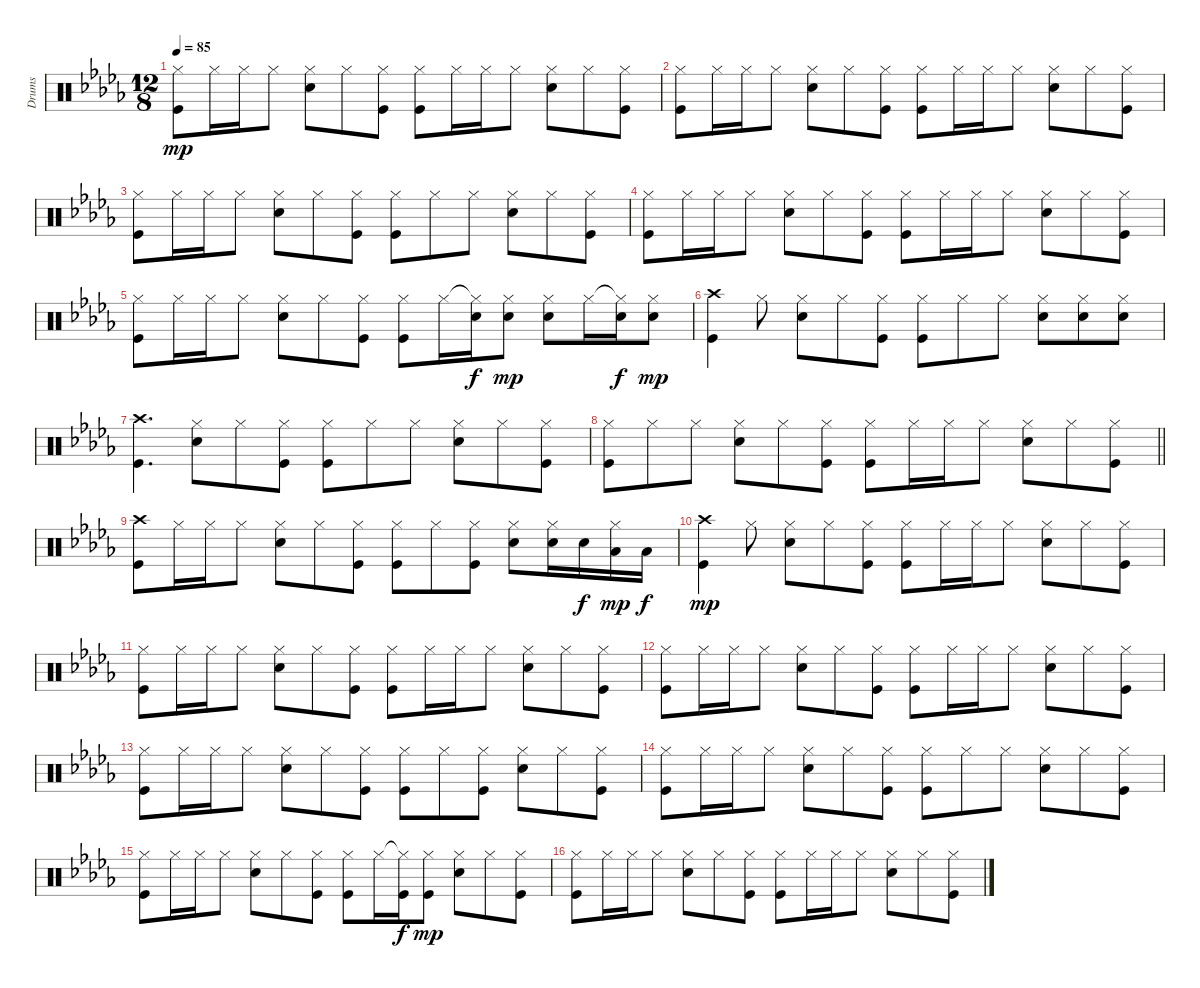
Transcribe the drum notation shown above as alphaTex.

\track ("Drums" "Drums") {instrument percussion}
\staff {score}
\articulation defaults
\ts (12 8)
\tempo 85
\clef neutral
\ks bbminor
("Hi-Hat (closed)" "Kick (hit)").8{dy mp} "Hi-Hat (closed)".16 "Hi-Hat (closed)".16 "Hi-Hat (closed)".8 ("Hi-Hat (closed)" "Snare (hit) 2").8 "Hi-Hat (closed)".8 ("Hi-Hat (closed)" "Kick (hit)").8 ("Hi-Hat (closed)" "Kick (hit)").8 "Hi-Hat (closed)".16 "Hi-Hat (closed)".16 "Hi-Hat (closed)".8 ("Hi-Hat (closed)" "Snare (hit) 2").8 "Hi-Hat (closed)".8 ("Hi-Hat (closed)" "Kick (hit)").8 |
("Hi-Hat (closed)" "Kick (hit)").8 "Hi-Hat (closed)".16 "Hi-Hat (closed)".16 "Hi-Hat (closed)".8 ("Hi-Hat (closed)" "Snare (hit) 2").8 "Hi-Hat (closed)".8 ("Hi-Hat (closed)" "Kick (hit)").8 ("Hi-Hat (closed)" "Kick (hit)").8 "Hi-Hat (closed)".16 "Hi-Hat (closed)".16 "Hi-Hat (closed)".8 ("Hi-Hat (closed)" "Snare (hit) 2").8 "Hi-Hat (closed)".8 ("Hi-Hat (closed)" "Kick (hit)").8 |
("Hi-Hat (closed)" "Kick (hit)").8 "Hi-Hat (closed)".16 "Hi-Hat (closed)".16 "Hi-Hat (closed)".8 ("Hi-Hat (closed)" "Snare (hit) 2").8 "Hi-Hat (closed)".8 ("Hi-Hat (closed)" "Kick (hit)").8 ("Hi-Hat (closed)" "Kick (hit)").8 "Hi-Hat (closed)".8 "Hi-Hat (closed)".8 ("Hi-Hat (closed)" "Snare (hit) 2").8 "Hi-Hat (closed)".8 ("Hi-Hat (closed)" "Kick (hit)").8 |
("Hi-Hat (closed)" "Kick (hit)").8 "Hi-Hat (closed)".16 "Hi-Hat (closed)".16 "Hi-Hat (closed)".8 ("Hi-Hat (closed)" "Snare (hit) 2").8 "Hi-Hat (closed)".8 ("Hi-Hat (closed)" "Kick (hit)").8 ("Hi-Hat (closed)" "Kick (hit)").8 "Hi-Hat (closed)".16 "Hi-Hat (closed)".16 "Hi-Hat (closed)".8 ("Hi-Hat (closed)" "Snare (hit) 2").8 "Hi-Hat (closed)".8 ("Hi-Hat (closed)" "Kick (hit)").8 |
("Hi-Hat (closed)" "Kick (hit)").8 "Hi-Hat (closed)".16 "Hi-Hat (closed)".16 "Hi-Hat (closed)".8 ("Hi-Hat (closed)" "Snare (hit) 2").8 "Hi-Hat (closed)".8 ("Hi-Hat (closed)" "Kick (hit)").8 ("Hi-Hat (closed)" "Kick (hit)").8 "Hi-Hat (closed)".16 ("Hi-Hat (closed)"{t} "Snare (hit) 2").16{dy f} ("Hi-Hat (closed)" "Snare (hit) 2").8{dy mp} ("Hi-Hat (closed)" "Snare (hit) 2").8 "Hi-Hat (closed)".16 ("Hi-Hat (closed)"{t} "Snare (hit) 2").16{dy f} ("Hi-Hat (closed)" "Snare (hit) 2").8{dy mp} |
("Crash high (hit)" "Kick (hit)").4 "Hi-Hat (closed)".8 ("Hi-Hat (closed)" "Snare (hit) 2").8 "Hi-Hat (closed)".8 ("Hi-Hat (closed)" "Kick (hit)").8 ("Hi-Hat (closed)" "Kick (hit)").8 "Hi-Hat (closed)".8 "Hi-Hat (closed)".8 ("Hi-Hat (closed)" "Snare (hit) 2").8 ("Hi-Hat (closed)" "Snare (hit) 2").8 ("Hi-Hat (closed)" "Snare (hit) 2").8 |
("Crash high (hit)" "Kick (hit)").4{d} ("Hi-Hat (closed)" "Snare (hit) 2").8 "Hi-Hat (closed)".8 ("Hi-Hat (closed)" "Kick (hit)").8 ("Hi-Hat (closed)" "Kick (hit)").8 "Hi-Hat (closed)".8 "Hi-Hat (closed)".8 ("Hi-Hat (closed)" "Snare (hit) 2").8 "Hi-Hat (closed)".8 ("Hi-Hat (closed)" "Kick (hit)").8 |
\barLineRight lightlight
("Hi-Hat (closed)" "Kick (hit)").8 "Hi-Hat (closed)".8 "Hi-Hat (closed)".8 ("Hi-Hat (closed)" "Snare (hit) 2").8 "Hi-Hat (closed)".8 ("Hi-Hat (closed)" "Kick (hit)").8 ("Hi-Hat (closed)" "Kick (hit)").8 "Hi-Hat (closed)".16 "Hi-Hat (closed)".16 "Hi-Hat (closed)".8 ("Hi-Hat (closed)" "Snare (hit) 2").8 "Hi-Hat (closed)".8 ("Hi-Hat (closed)" "Kick (hit)").8 |
("Crash high (hit)" "Kick (hit)").8 "Hi-Hat (closed)".16 "Hi-Hat (closed)".16 "Hi-Hat (closed)".8 ("Hi-Hat (closed)" "Snare (hit) 2").8 "Hi-Hat (closed)".8 ("Hi-Hat (closed)" "Kick (hit)").8 ("Hi-Hat (closed)" "Kick (hit)").8 "Hi-Hat (closed)".8 ("Hi-Hat (closed)" "Kick (hit)").8 ("Hi-Hat (closed)" "Snare (hit) 2").8 ("Hi-Hat (closed)" "Snare (hit) 2").16 "Snare (hit) 2".16{dy f} ("Hi-Hat (closed)" "Low Tom (hit)").16{dy mp} "Low Tom (hit)".16{dy f} |
("Crash high (hit)" "Kick (hit)").4{dy mp} "Hi-Hat (closed)".8 ("Hi-Hat (closed)" "Snare (hit) 2").8 "Hi-Hat (closed)".8 ("Hi-Hat (closed)" "Kick (hit)").8 ("Hi-Hat (closed)" "Kick (hit)").8 "Hi-Hat (closed)".16 "Hi-Hat (closed)".16 "Hi-Hat (closed)".8 ("Hi-Hat (closed)" "Snare (hit) 2").8 "Hi-Hat (closed)".8 ("Hi-Hat (closed)" "Kick (hit)").8 |
("Hi-Hat (closed)" "Kick (hit)").8 "Hi-Hat (closed)".16 "Hi-Hat (closed)".16 "Hi-Hat (closed)".8 ("Hi-Hat (closed)" "Snare (hit) 2").8 "Hi-Hat (closed)".8 ("Hi-Hat (closed)" "Kick (hit)").8 ("Hi-Hat (closed)" "Kick (hit)").8 "Hi-Hat (closed)".16 "Hi-Hat (closed)".16 "Hi-Hat (closed)".8 ("Hi-Hat (closed)" "Snare (hit) 2").8 "Hi-Hat (closed)".8 ("Hi-Hat (closed)" "Kick (hit)").8 |
("Hi-Hat (closed)" "Kick (hit)").8 "Hi-Hat (closed)".16 "Hi-Hat (closed)".16 "Hi-Hat (closed)".8 ("Hi-Hat (closed)" "Snare (hit) 2").8 "Hi-Hat (closed)".8 ("Hi-Hat (closed)" "Kick (hit)").8 ("Hi-Hat (closed)" "Kick (hit)").8 "Hi-Hat (closed)".16 "Hi-Hat (closed)".16 "Hi-Hat (closed)".8 ("Hi-Hat (closed)" "Snare (hit) 2").8 "Hi-Hat (closed)".8 ("Hi-Hat (closed)" "Kick (hit)").8 |
("Hi-Hat (closed)" "Kick (hit)").8 "Hi-Hat (closed)".16 "Hi-Hat (closed)".16 "Hi-Hat (closed)".8 ("Hi-Hat (closed)" "Snare (hit) 2").8 "Hi-Hat (closed)".8 ("Hi-Hat (closed)" "Kick (hit)").8 ("Hi-Hat (closed)" "Kick (hit)").8 "Hi-Hat (closed)".8 ("Hi-Hat (closed)" "Kick (hit)").8 ("Hi-Hat (closed)" "Snare (hit) 2").8 "Hi-Hat (closed)".8 ("Hi-Hat (closed)" "Kick (hit)").8 |
("Hi-Hat (closed)" "Kick (hit)").8 "Hi-Hat (closed)".16 "Hi-Hat (closed)".16 "Hi-Hat (closed)".8 ("Hi-Hat (closed)" "Snare (hit) 2").8 "Hi-Hat (closed)".8 ("Hi-Hat (closed)" "Kick (hit)").8 ("Hi-Hat (closed)" "Kick (hit)").8 "Hi-Hat (closed)".8 "Hi-Hat (closed)".8 ("Hi-Hat (closed)" "Snare (hit) 2").8 "Hi-Hat (closed)".8 ("Hi-Hat (closed)" "Kick (hit)").8 |
("Hi-Hat (closed)" "Kick (hit)").8 "Hi-Hat (closed)".16 "Hi-Hat (closed)".16 "Hi-Hat (closed)".8 ("Hi-Hat (closed)" "Snare (hit) 2").8 "Hi-Hat (closed)".8 ("Hi-Hat (closed)" "Kick (hit)").8 ("Hi-Hat (closed)" "Kick (hit)").8 "Hi-Hat (closed)".16 ("Hi-Hat (closed)"{t} "Kick (hit)").16{dy f} ("Hi-Hat (closed)" "Kick (hit)").8{dy mp} ("Hi-Hat (closed)" "Snare (hit) 2").8 "Hi-Hat (closed)".8 ("Hi-Hat (closed)" "Kick (hit)").8 |
("Hi-Hat (closed)" "Kick (hit)").8 "Hi-Hat (closed)".16 "Hi-Hat (closed)".16 "Hi-Hat (closed)".8 ("Hi-Hat (closed)" "Snare (hit) 2").8 "Hi-Hat (closed)".8 ("Hi-Hat (closed)" "Kick (hit)").8 ("Hi-Hat (closed)" "Kick (hit)").8 "Hi-Hat (closed)".16 "Hi-Hat (closed)".16 "Hi-Hat (closed)".8 ("Hi-Hat (closed)" "Snare (hit) 2").8 "Hi-Hat (closed)".8 ("Hi-Hat (closed)" "Kick (hit)").8
